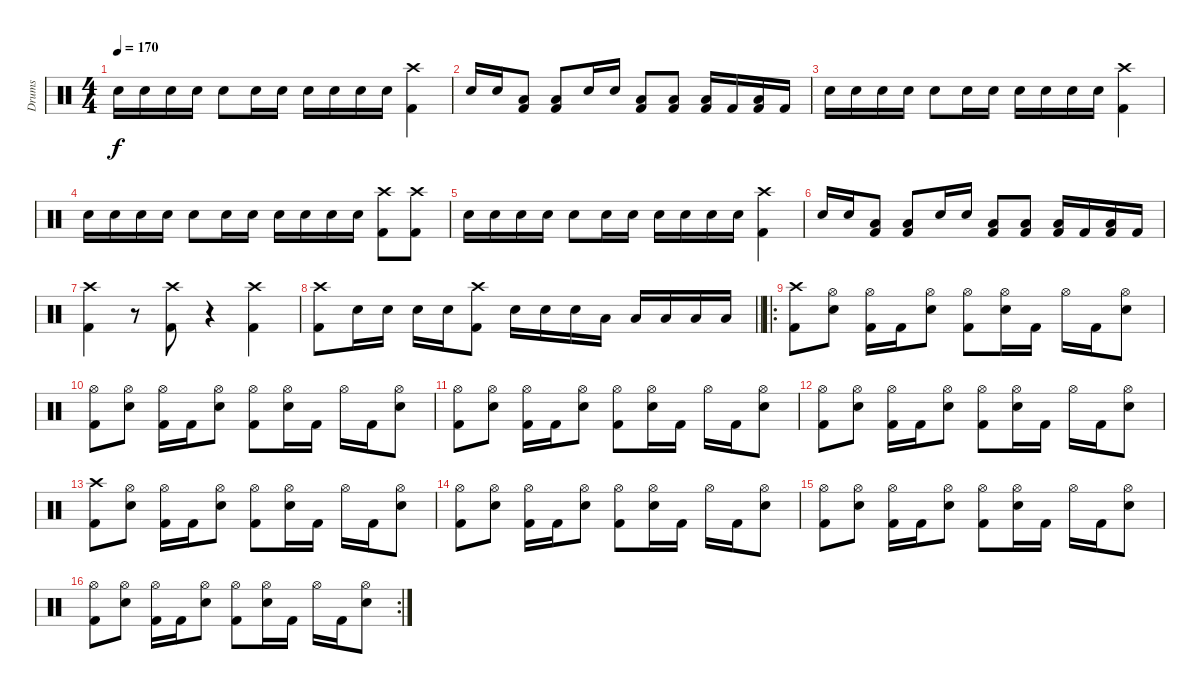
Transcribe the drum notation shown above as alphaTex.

\track ("Drums" "Drums") {instrument percussion}
\staff {score}
\articulation defaults
\ts (4 4)
\tempo 170
\clef neutral
\ks c "Snare (hit) 2".16{dy f} "Snare (hit) 2".16 "Snare (hit) 2".16 "Snare (hit) 2".16 "Snare (hit) 2".8 "Snare (hit) 2".16 "Snare (hit) 2".16 "Snare (hit) 2".16 "Snare (hit) 2".16 "Snare (hit) 2".16 "Snare (hit) 2".16
("Crash high (hit)" "Kick (hit) 2").4 |
"Snare (hit) 2".16 "Snare (hit) 2".16 ("Low Floor Tom (hit)" "Kick (hit) 2").8 ("Low Floor Tom (hit)" "Kick (hit) 2").8 "Snare (hit) 2".16 "Snare (hit) 2".16 ("Low Floor Tom (hit)" "Kick (hit) 2").8 ("Low Floor Tom (hit)" "Kick (hit) 2").8 ("Low Floor Tom (hit)" "Kick (hit) 2").16 "Kick (hit) 2".16 ("Low Floor Tom (hit)" "Kick (hit) 2").16 "Kick (hit) 2".16 |
"Snare (hit) 2".16 "Snare (hit) 2".16 "Snare (hit) 2".16 "Snare (hit) 2".16 "Snare (hit) 2".8 "Snare (hit) 2".16 "Snare (hit) 2".16 "Snare (hit) 2".16 "Snare (hit) 2".16 "Snare (hit) 2".16 "Snare (hit) 2".16 ("Crash high (hit)" "Kick (hit) 2").4 |
"Snare (hit) 2".16 "Snare (hit) 2".16 "Snare (hit) 2".16 "Snare (hit) 2".16 "Snare (hit) 2".8 "Snare (hit) 2".16 "Snare (hit) 2".16 "Snare (hit) 2".16 "Snare (hit) 2".16 "Snare (hit) 2".16 "Snare (hit) 2".16 ("Crash high (hit)" "Kick (hit) 2").8 ("Crash high (hit)" "Kick (hit) 2").8 |
"Snare (hit) 2".16 "Snare (hit) 2".16 "Snare (hit) 2".16 "Snare (hit) 2".16 "Snare (hit) 2".8 "Snare (hit) 2".16 "Snare (hit) 2".16 "Snare (hit) 2".16 "Snare (hit) 2".16 "Snare (hit) 2".16 "Snare (hit) 2".16 ("Crash high (hit)" "Kick (hit) 2").4 |
"Snare (hit) 2".16 "Snare (hit) 2".16 ("Low Floor Tom (hit)" "Kick (hit) 2").8 ("Low Floor Tom (hit)" "Kick (hit) 2").8 "Snare (hit) 2".16 "Snare (hit) 2".16 ("Low Floor Tom (hit)" "Kick (hit) 2").8 ("Low Floor Tom (hit)" "Kick (hit) 2").8 ("Low Floor Tom (hit)" "Kick (hit) 2").16 "Kick (hit) 2".16 ("Low Floor Tom (hit)" "Kick (hit) 2").16 "Kick (hit) 2".16 |
("Crash high (hit)" "Kick (hit) 2").4 r.8 ("Crash high (hit)" "Kick (hit) 2").8 r.4 ("Crash high (hit)" "Kick (hit) 2").4 |
\barLineRight lightlight
("Crash high (hit)" "Kick (hit) 2").8 "Snare (hit) 2".16 "Snare (hit) 2".16 "Snare (hit) 2".16 "Snare (hit) 2".16 ("Crash high (hit)" "Kick (hit) 2").8 "Snare (hit) 2".16 "Snare (hit) 2".16 "Snare (hit) 2".16 "Low Tom (hit)".16 "Low Tom (hit)".16 "Low Floor Tom (hit)".16 "Low Floor Tom (hit)".16 "Low Floor Tom (hit)".16 |
\ro
("Crash high (hit)" "Kick (hit) 2").8 ("Hi-Hat (open)" "Snare (hit) 2").8 ("Hi-Hat (open)" "Kick (hit) 2").16 "Kick (hit) 2".16 ("Hi-Hat (open)" "Snare (hit) 2").8 ("Hi-Hat (open)" "Kick (hit) 2").8 ("Hi-Hat (open)" "Snare (hit) 2").16 "Kick (hit) 2".16 "Hi-Hat (open)".16 "Kick (hit) 2".16 ("Hi-Hat (open)" "Snare (hit) 2").8 |
("Hi-Hat (open)" "Kick (hit) 2").8 ("Hi-Hat (open)" "Snare (hit) 2").8 ("Hi-Hat (open)" "Kick (hit) 2").16 "Kick (hit) 2".16 ("Hi-Hat (open)" "Snare (hit) 2").8 ("Hi-Hat (open)" "Kick (hit) 2").8 ("Hi-Hat (open)" "Snare (hit) 2").16 "Kick (hit) 2".16 "Hi-Hat (open)".16 "Kick (hit) 2".16 ("Hi-Hat (open)" "Snare (hit) 2").8 |
("Hi-Hat (open)" "Kick (hit) 2").8 ("Hi-Hat (open)" "Snare (hit) 2").8 ("Hi-Hat (open)" "Kick (hit) 2").16 "Kick (hit) 2".16 ("Hi-Hat (open)" "Snare (hit) 2").8 ("Hi-Hat (open)" "Kick (hit) 2").8 ("Hi-Hat (open)" "Snare (hit) 2").16 "Kick (hit) 2".16 "Hi-Hat (open)".16 "Kick (hit) 2".16 ("Hi-Hat (open)" "Snare (hit) 2").8 |
("Hi-Hat (open)" "Kick (hit) 2").8 ("Hi-Hat (open)" "Snare (hit) 2").8 ("Hi-Hat (open)" "Kick (hit) 2").16 "Kick (hit) 2".16 ("Hi-Hat (open)" "Snare (hit) 2").8 ("Hi-Hat (open)" "Kick (hit) 2").8 ("Hi-Hat (open)" "Snare (hit) 2").16 "Kick (hit) 2".16 "Hi-Hat (open)".16 "Kick (hit) 2".16 ("Hi-Hat (open)" "Snare (hit) 2").8 |
("Crash high (hit)" "Kick (hit) 2").8 ("Hi-Hat (open)" "Snare (hit) 2").8 ("Hi-Hat (open)" "Kick (hit) 2").16 "Kick (hit) 2".16 ("Hi-Hat (open)" "Snare (hit) 2").8 ("Hi-Hat (open)" "Kick (hit) 2").8 ("Hi-Hat (open)" "Snare (hit) 2").16 "Kick (hit) 2".16 "Hi-Hat (open)".16 "Kick (hit) 2".16 ("Hi-Hat (open)" "Snare (hit) 2").8 |
("Hi-Hat (open)" "Kick (hit) 2").8 ("Hi-Hat (open)" "Snare (hit) 2").8 ("Hi-Hat (open)" "Kick (hit) 2").16 "Kick (hit) 2".16 ("Hi-Hat (open)" "Snare (hit) 2").8 ("Hi-Hat (open)" "Kick (hit) 2").8 ("Hi-Hat (open)" "Snare (hit) 2").16 "Kick (hit) 2".16 "Hi-Hat (open)".16 "Kick (hit) 2".16 ("Hi-Hat (open)" "Snare (hit) 2").8 |
("Hi-Hat (open)" "Kick (hit) 2").8 ("Hi-Hat (open)" "Snare (hit) 2").8 ("Hi-Hat (open)" "Kick (hit) 2").16 "Kick (hit) 2".16 ("Hi-Hat (open)" "Snare (hit) 2").8 ("Hi-Hat (open)" "Kick (hit) 2").8 ("Hi-Hat (open)" "Snare (hit) 2").16 "Kick (hit) 2".16 "Hi-Hat (open)".16 "Kick (hit) 2".16 ("Hi-Hat (open)" "Snare (hit) 2").8 |
\rc 2
("Hi-Hat (open)" "Kick (hit) 2").8 ("Hi-Hat (open)" "Snare (hit) 2").8 ("Hi-Hat (open)" "Kick (hit) 2").16 "Kick (hit) 2".16 ("Hi-Hat (open)" "Snare (hit) 2").8 ("Hi-Hat (open)" "Kick (hit) 2").8 ("Hi-Hat (open)" "Snare (hit) 2").16 "Kick (hit) 2".16 "Hi-Hat (open)".16 "Kick (hit) 2".16 ("Hi-Hat (open)" "Snare (hit) 2").8
